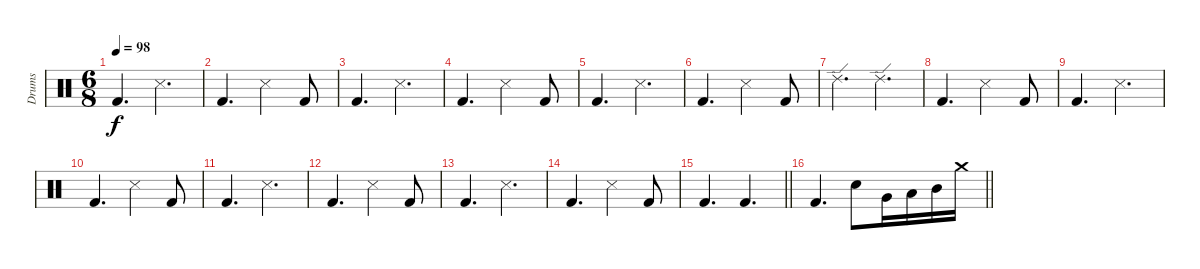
\track ("Drums" "Drums") {instrument percussion}
\staff {score}
\articulation defaults
\ts (6 8)
\tempo 98
\clef neutral
\ks c "Kick (hit) 2".4{d dy f} "Snare (side stick) 3".4{d}
|
"Kick (hit) 2".4{d} "Snare (side stick) 3".4 "Kick (hit) 2".8 |
"Kick (hit) 2".4{d} "Snare (side stick) 3".4{d} |
"Kick (hit) 2".4{d} "Snare (side stick) 3".4 "Kick (hit) 2".8 |
"Kick (hit) 2".4{d} "Snare (side stick) 3".4{d} |
"Kick (hit) 2".4{d} "Snare (side stick) 3".4 "Kick (hit) 2".8 |
"Ride (edge) 2".4{d} "Ride (edge) 2".4{d} |
"Kick (hit) 2".4{d} "Snare (side stick) 3".4 "Kick (hit) 2".8 |
"Kick (hit) 2".4{d} "Snare (side stick) 3".4{d} |
"Kick (hit) 2".4{d} "Snare (side stick) 3".4 "Kick (hit) 2".8 |
"Kick (hit) 2".4{d} "Snare (side stick) 3".4{d} |
"Kick (hit) 2".4{d} "Snare (side stick) 3".4 "Kick (hit) 2".8 |
"Kick (hit) 2".4{d} "Snare (side stick) 3".4{d} |
"Kick (hit) 2".4{d} "Snare (side stick) 3".4 "Kick (hit) 2".8 |
\barLineRight lightlight "Kick (hit) 2".4{d} "Kick (hit) 2".4{d}
|
\barLineRight lightlight "Kick (hit) 2".4{d} "Snare (hit) 2".8 "Very Low Tom (hit)".16 "Low Tom (hit)".16 "Mid Tom (hit)".16 "Crash medium (hit)".16
